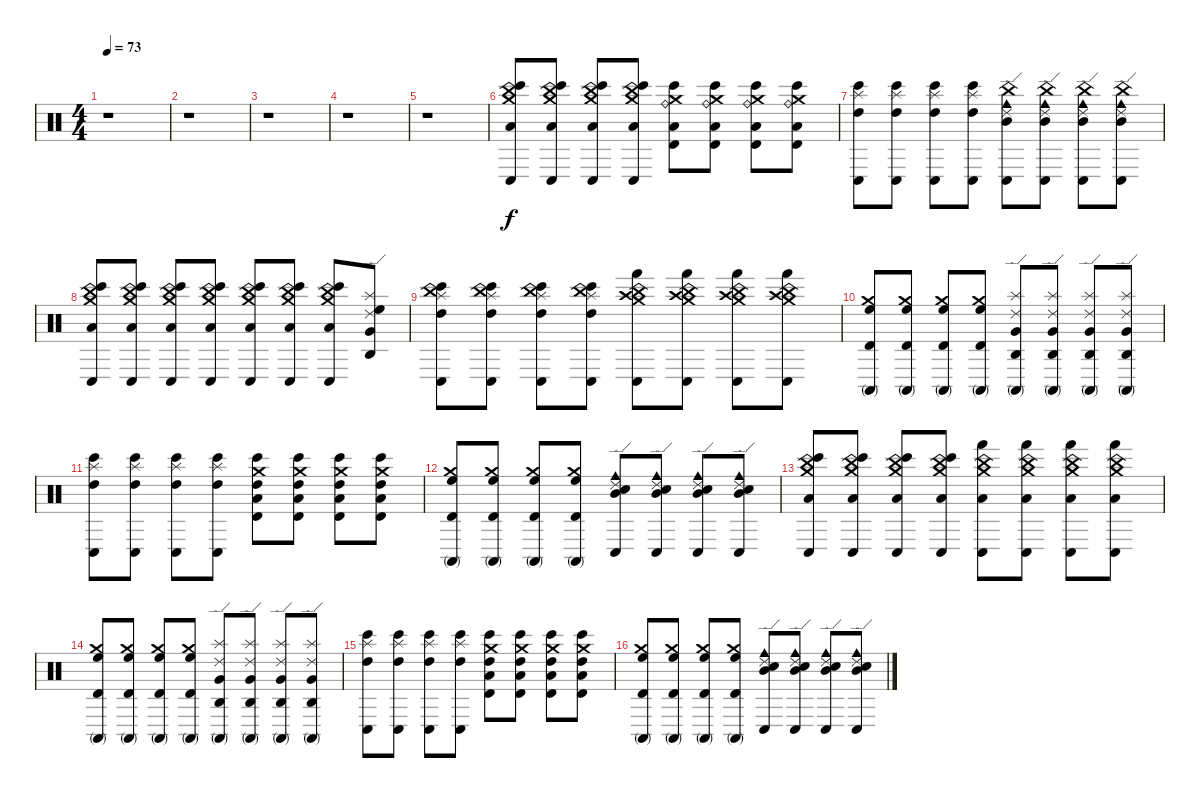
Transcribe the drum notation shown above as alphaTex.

\track "" {instrument percussion}
\staff {score}
\articulation defaults
\ts (4 4)
\tempo 73
\clef neutral
\ks c
r.1{dy f} |
r.1 |
r.1 |
r.1 |
r.1 |
("Low Tom (hit)" "China (hit)" "Crash medium (hit)" "Bongo High (hit)" "Conga low (hit)").8 ("Low Tom (hit)" "China (hit)" "Crash medium (hit)" "Bongo High (hit)" "Conga low (hit)").8 ("Crash medium (hit)" "Bongo High (hit)" "Conga low (hit)" "China (hit)" "Low Tom (hit)").8 ("Crash medium (hit)" "Bongo High (hit)" "Conga low (hit)" "China (hit)" "Low Tom (hit)").8 ("Crash medium (hit)" "Bongo High (hit)" "Timbale high (hit)" "Ride (bell)" "Low Floor Tom (hit)").8 ("Crash medium (hit)" "Bongo High (hit)" "Timbale high (hit)" "Ride (bell)" "Low Floor Tom (hit)").8 ("Crash medium (hit)" "Bongo High (hit)" "Timbale high (hit)" "Ride (bell)" "Low Floor Tom (hit)").8 ("Crash medium (hit)" "Bongo High (hit)" "Timbale high (hit)" "Ride (bell)" "Low Floor Tom (hit)").8 |
("High Tom (hit)" "Splash (hit)" "Bongo High (hit)" "Conga low (hit)").8 ("High Tom (hit)" "Splash (hit)" "Bongo High (hit)" "Conga low (hit)").8 ("High Tom (hit)" "Splash (hit)" "Bongo High (hit)" "Conga low (hit)").8 ("High Tom (hit)" "Splash (hit)" "Bongo High (hit)" "Conga low (hit)").8 ("China (hit)" "Cowbell medium (hit)" "Ride (edge) 2" "Mid Tom (hit)" "Conga low (hit)").8 ("China (hit)" "Cowbell medium (hit)" "Mid Tom (hit)" "Ride (edge) 2" "Conga low (hit)").8 ("China (hit)" "Cowbell medium (hit)" "Mid Tom (hit)" "Ride (edge) 2" "Conga low (hit)").8 ("China (hit)" "Cowbell medium (hit)" "Mid Tom (hit)" "Ride (edge) 2" "Conga low (hit)").8 |
("Conga low (hit)" "Bongo High (hit)" "Crash medium (hit)" "China (hit)" "Low Tom (hit)").8 ("China (hit)" "Crash medium (hit)" "Bongo High (hit)" "Conga low (hit)" "Low Tom (hit)").8 ("Conga low (hit)" "Bongo High (hit)" "Crash medium (hit)" "China (hit)" "Low Tom (hit)").8 ("China (hit)" "Crash medium (hit)" "Bongo High (hit)" "Conga low (hit)" "Low Tom (hit)").8 ("Conga low (hit)" "Bongo High (hit)" "Crash medium (hit)" "China (hit)" "Low Tom (hit)").8 ("China (hit)" "Crash medium (hit)" "Bongo High (hit)" "Conga low (hit)" "Low Tom (hit)").8 ("Conga low (hit)" "Bongo High (hit)" "Crash medium (hit)" "China (hit)" "Low Tom (hit)").8 ("High Floor Tom (hit)" "Splash (hit)" "Ride (edge) 2" "Agogo high (hit)" "Very Low Tom (hit)").8 |
("China (hit)" "Conga low (hit)" "Bongo High (hit)" "Splash (hit)" "High Tom (hit)").8 ("Bongo High (hit)" "Conga low (hit)" "Splash (hit)" "China (hit)" "High Tom (hit)").8 ("Conga low (hit)" "Bongo High (hit)" "Splash (hit)" "China (hit)" "High Tom (hit)").8 ("Bongo High (hit)" "Conga low (hit)" "Splash (hit)" "China (hit)" "High Tom (hit)").8 ("China (hit)" "Crash medium (hit)" "Hand (hit)" "Conga low (hit)" "Crash high (hit)").8 ("Crash medium (hit)" "Hand (hit)" "Conga low (hit)" "China (hit)" "Crash high (hit)").8 ("China (hit)" "Crash medium (hit)" "Hand (hit)" "Conga low (hit)" "Crash high (hit)").8 ("Crash medium (hit)" "Hand (hit)" "Conga low (hit)" "China (hit)" "Crash high (hit)").8 |
("Timbale high (hit)" "Conga high (mute)" "Crash medium (hit)" "High Floor Tom (hit)").8 ("Crash medium (hit)" "Conga high (mute)" "Timbale high (hit)" "High Floor Tom (hit)").8 ("Crash medium (hit)" "Conga high (mute)" "Timbale high (hit)" "High Floor Tom (hit)").8 ("High Floor Tom (hit)" "Crash medium (hit)" "Conga high (mute)" "Timbale high (hit)").8 ("Splash (hit)" "Ride (edge) 2" "Conga high (mute)" "Agogo high (hit)" "Very Low Tom (hit)").8 ("Very Low Tom (hit)" "Splash (hit)" "Ride (edge) 2" "Conga high (mute)" "Agogo high (hit)").8 ("Agogo high (hit)" "Conga high (mute)" "Ride (edge) 2" "Splash (hit)" "Very Low Tom (hit)").8 ("Very Low Tom (hit)" "Splash (hit)" "Ride (edge) 2" "Conga high (mute)" "Agogo high (hit)").8 |
("Conga low (hit)" "Bongo High (hit)" "Splash (hit)" "High Tom (hit)").8 ("Conga low (hit)" "Bongo High (hit)" "Splash (hit)" "High Tom (hit)").8 ("Bongo High (hit)" "Conga low (hit)" "Splash (hit)" "High Tom (hit)").8 ("Conga low (hit)" "Bongo High (hit)" "Splash (hit)" "High Tom (hit)").8 ("Crash medium (hit)" "Timbale high (hit)" "Bongo High (hit)" "High Tom (hit)" "Low Floor Tom (hit)").8 ("Crash medium (hit)" "Bongo High (hit)" "Timbale high (hit)" "Low Floor Tom (hit)" "High Tom (hit)").8 ("Crash medium (hit)" "Bongo High (hit)" "Timbale high (hit)" "High Tom (hit)" "Low Floor Tom (hit)").8 ("Crash medium (hit)" "Bongo High (hit)" "Timbale high (hit)" "Low Floor Tom (hit)" "High Tom (hit)").8 |
("Timbale high (hit)" "Conga high (mute)" "Crash medium (hit)" "High Floor Tom (hit)").8 ("Crash medium (hit)" "Conga high (mute)" "Timbale high (hit)" "High Floor Tom (hit)").8 ("Conga high (mute)" "Timbale high (hit)" "Crash medium (hit)" "High Floor Tom (hit)").8 ("Crash medium (hit)" "Conga high (mute)" "Timbale high (hit)" "High Floor Tom (hit)").8 ("Conga low (hit)" "Ride (edge) 2" "Cowbell medium (hit)" "Electric Snare (hit)" "Mid Tom (hit)").8 ("Cowbell medium (hit)" "Ride (edge) 2" "Conga low (hit)" "Mid Tom (hit)" "Electric Snare (hit)").8 ("Cowbell medium (hit)" "Ride (edge) 2" "Conga low (hit)" "Mid Tom (hit)" "Electric Snare (hit)").8 ("Cowbell medium (hit)" "Ride (edge) 2" "Conga low (hit)" "Mid Tom (hit)" "Electric Snare (hit)").8 |
("Conga low (hit)" "Bongo High (hit)" "Crash medium (hit)" "China (hit)" "Low Tom (hit)").8 ("China (hit)" "Bongo High (hit)" "Conga low (hit)" "Crash medium (hit)" "Low Tom (hit)").8 ("Crash medium (hit)" "Bongo High (hit)" "Conga low (hit)" "China (hit)" "Low Tom (hit)").8 ("China (hit)" "Crash medium (hit)" "Bongo High (hit)" "Conga low (hit)" "Low Tom (hit)").8 ("Crash medium (hit)" "Conga low (hit)" "Hand (hit)" "China (hit)" "Low Tom (hit)").8 ("China (hit)" "Crash medium (hit)" "Hand (hit)" "Conga low (hit)" "Low Tom (hit)").8 ("Crash medium (hit)" "Conga low (hit)" "Hand (hit)" "China (hit)" "Low Tom (hit)").8 ("China (hit)" "Crash medium (hit)" "Hand (hit)" "Conga low (hit)" "Low Tom (hit)").8 |
("Timbale high (hit)" "Conga high (mute)" "Crash medium (hit)" "High Floor Tom (hit)").8 ("Crash medium (hit)" "Conga high (mute)" "Timbale high (hit)" "High Floor Tom (hit)").8 ("Crash medium (hit)" "Conga high (mute)" "Timbale high (hit)" "High Floor Tom (hit)").8 ("High Floor Tom (hit)" "Crash medium (hit)" "Conga high (mute)" "Timbale high (hit)").8 ("Splash (hit)" "Ride (edge) 2" "Conga high (mute)" "Agogo high (hit)" "Very Low Tom (hit)").8 ("Very Low Tom (hit)" "Splash (hit)" "Ride (edge) 2" "Conga high (mute)" "Agogo high (hit)").8 ("Agogo high (hit)" "Conga high (mute)" "Ride (edge) 2" "Splash (hit)" "Very Low Tom (hit)").8 ("Very Low Tom (hit)" "Splash (hit)" "Ride (edge) 2" "Conga high (mute)" "Agogo high (hit)").8 |
("Conga low (hit)" "Bongo High (hit)" "Splash (hit)" "High Tom (hit)").8 ("Conga low (hit)" "Bongo High (hit)" "Splash (hit)" "High Tom (hit)").8 ("Bongo High (hit)" "Conga low (hit)" "Splash (hit)" "High Tom (hit)").8 ("Conga low (hit)" "Bongo High (hit)" "Splash (hit)" "High Tom (hit)").8 ("Crash medium (hit)" "Timbale high (hit)" "Bongo High (hit)" "High Tom (hit)" "Low Floor Tom (hit)").8 ("Crash medium (hit)" "Bongo High (hit)" "Timbale high (hit)" "Low Floor Tom (hit)" "High Tom (hit)").8 ("Crash medium (hit)" "Bongo High (hit)" "Timbale high (hit)" "High Tom (hit)" "Low Floor Tom (hit)").8 ("Crash medium (hit)" "Bongo High (hit)" "Timbale high (hit)" "Low Floor Tom (hit)" "High Tom (hit)").8 |
("Timbale high (hit)" "Conga high (mute)" "Crash medium (hit)" "High Floor Tom (hit)").8 ("Crash medium (hit)" "Conga high (mute)" "Timbale high (hit)" "High Floor Tom (hit)").8 ("Conga high (mute)" "Timbale high (hit)" "Crash medium (hit)" "High Floor Tom (hit)").8 ("Crash medium (hit)" "Conga high (mute)" "Timbale high (hit)" "High Floor Tom (hit)").8 ("Conga low (hit)" "Ride (edge) 2" "Cowbell medium (hit)" "Electric Snare (hit)" "Mid Tom (hit)").8 ("Cowbell medium (hit)" "Ride (edge) 2" "Conga low (hit)" "Mid Tom (hit)" "Electric Snare (hit)").8 ("Cowbell medium (hit)" "Ride (edge) 2" "Conga low (hit)" "Mid Tom (hit)" "Electric Snare (hit)").8 ("Cowbell medium (hit)" "Ride (edge) 2" "Conga low (hit)" "Mid Tom (hit)" "Electric Snare (hit)").8
